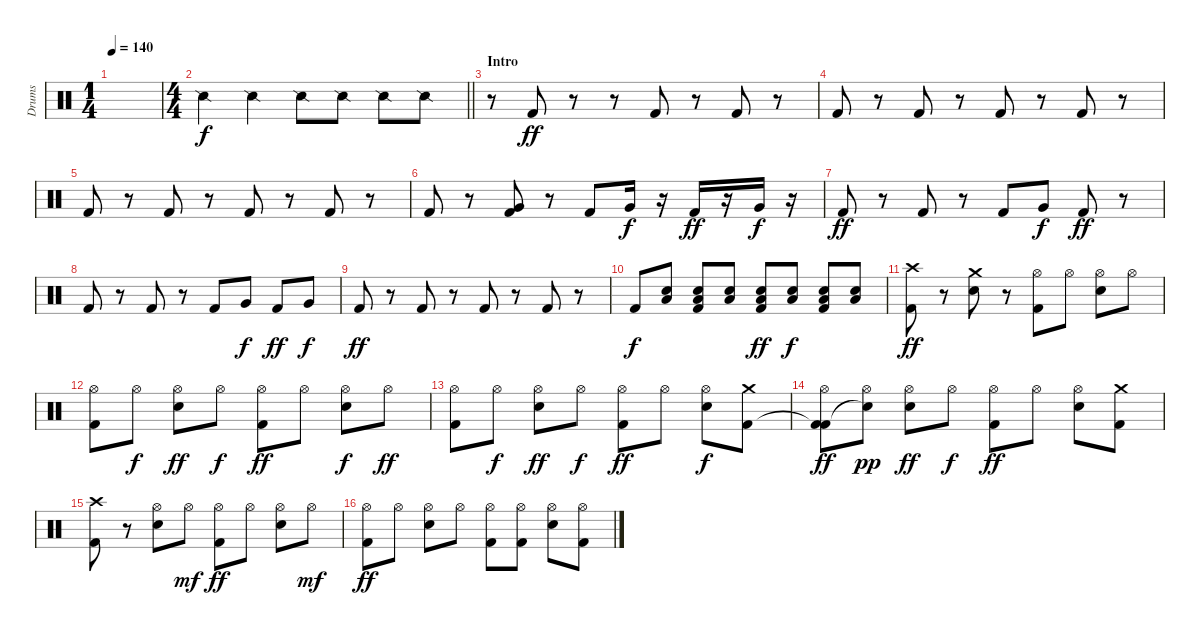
\track ("Drums" "Drums") {instrument percussion}
\staff {score}
\articulation defaults
\ts (1 4)
\tempo 140
\clef neutral
\ks c
|
\ts (4 4)
\barLineRight lightlight "Snare (side stick) 2".4 "Snare (side stick) 2".4 "Snare (side stick) 2".8 "Snare (side stick) 2".8 "Snare (side stick) 2".8 "Snare (side stick) 2".8
|
\section ("" "Intro")
r.8 "Kick (hit) 2".8{dy ff} r.8 r.8 "Kick (hit) 2".8 r.8 "Kick (hit) 2".8 r.8 |
"Kick (hit) 2".8 r.8 "Kick (hit) 2".8 r.8 "Kick (hit) 2".8 r.8 "Kick (hit) 2".8 r.8 |
"Kick (hit) 2".8 r.8 "Kick (hit) 2".8 r.8 "Kick (hit) 2".8 r.8 "Kick (hit) 2".8 r.8 |
"Kick (hit) 2".8 r.8 ("Kick (hit) 2" "Very Low Tom (hit)").8 r.8 "Kick (hit) 2".8 "Very Low Tom (hit)".16{dy f} r.16 "Kick (hit) 2".16{dy ff} r.16 "Very Low Tom (hit)".16{dy f} r.16 |
"Kick (hit) 2".8{dy ff} r.8 "Kick (hit) 2".8 r.8 "Kick (hit) 2".8 "Very Low Tom (hit)".8{dy f} "Kick (hit) 2".8{dy ff} r.8 |
"Kick (hit) 2".8 r.8 "Kick (hit) 2".8 r.8 "Kick (hit) 2".8 "Very Low Tom (hit)".8{dy f} "Kick (hit) 2".8{dy ff} "Very Low Tom (hit)".8{dy f} |
"Kick (hit) 2".8{dy ff} r.8 "Kick (hit) 2".8 r.8 "Kick (hit) 2".8 r.8 "Kick (hit) 2".8 r.8 |
"Kick (hit) 2".8{dy f} ("Electric Snare (hit)" "Low Floor Tom (hit)").8 ("Electric Snare (hit)" "Low Floor Tom (hit)" "Kick (hit) 2").8 ("Electric Snare (hit)" "Low Floor Tom (hit)").8 ("Electric Snare (hit)" "Low Floor Tom (hit)" "Kick (hit) 2").8{dy ff} ("Electric Snare (hit)" "Low Floor Tom (hit)").8{dy f} ("Electric Snare (hit)" "Low Floor Tom (hit)" "Kick (hit) 2").8 ("Electric Snare (hit)" "Low Floor Tom (hit)").8 |
("Crash high (hit)" "Kick (hit) 2").8{dy ff} r.8 ("Crash medium (hit)" "Electric Snare (hit)").8 r.8 ("Hi-Hat (open)" "Kick (hit) 2").8 "Hi-Hat (open)".8 ("Hi-Hat (open)" "Electric Snare (hit)").8 "Hi-Hat (open)".8 |
("Hi-Hat (open)" "Kick (hit) 2").8 "Hi-Hat (open)".8{dy f} ("Hi-Hat (open)" "Electric Snare (hit)").8{dy ff} "Hi-Hat (open)".8{dy f} ("Hi-Hat (open)" "Kick (hit) 2").8{dy ff} "Hi-Hat (open)".8 ("Hi-Hat (open)" "Electric Snare (hit)").8{dy f} "Hi-Hat (open)".8{dy ff} |
("Hi-Hat (open)" "Kick (hit) 2").8 "Hi-Hat (open)".8{dy f} ("Hi-Hat (open)" "Electric Snare (hit)").8{dy ff} "Hi-Hat (open)".8{dy f} ("Hi-Hat (open)" "Kick (hit) 2").8{dy ff} "Hi-Hat (open)".8 ("Hi-Hat (open)" "Electric Snare (hit)").8{dy f} ("Crash medium (hit)" "Kick (hit) 2").8 |
("Hi-Hat (open)" "Kick (hit) 2"{t} "Kick (hit) 2").8{dy ff} ("Hi-Hat (open)" "Snare (hit)"{t}).8{dy pp} ("Hi-Hat (open)" "Electric Snare (hit)").8{dy ff} "Hi-Hat (open)".8{dy f} ("Hi-Hat (open)" "Kick (hit) 2").8{dy ff} "Hi-Hat (open)".8 ("Hi-Hat (open)" "Electric Snare (hit)").8 ("Crash medium (hit)" "Kick (hit) 2").8 |
("Crash high (hit)" "Kick (hit) 2").8 r.8 ("Hi-Hat (open)" "Electric Snare (hit)").8 "Hi-Hat (open)".8{dy mf} ("Hi-Hat (open)" "Kick (hit) 2").8{dy ff} "Hi-Hat (open)".8 ("Hi-Hat (open)" "Electric Snare (hit)").8 "Hi-Hat (open)".8{dy mf} |
("Hi-Hat (open)" "Kick (hit) 2").8{dy ff} "Hi-Hat (open)".8 ("Hi-Hat (open)" "Electric Snare (hit)").8 "Hi-Hat (open)".8 ("Hi-Hat (open)" "Kick (hit) 2").8 ("Hi-Hat (open)" "Kick (hit) 2").8 ("Hi-Hat (open)" "Electric Snare (hit)").8 ("Hi-Hat (open)" "Kick (hit) 2").8
